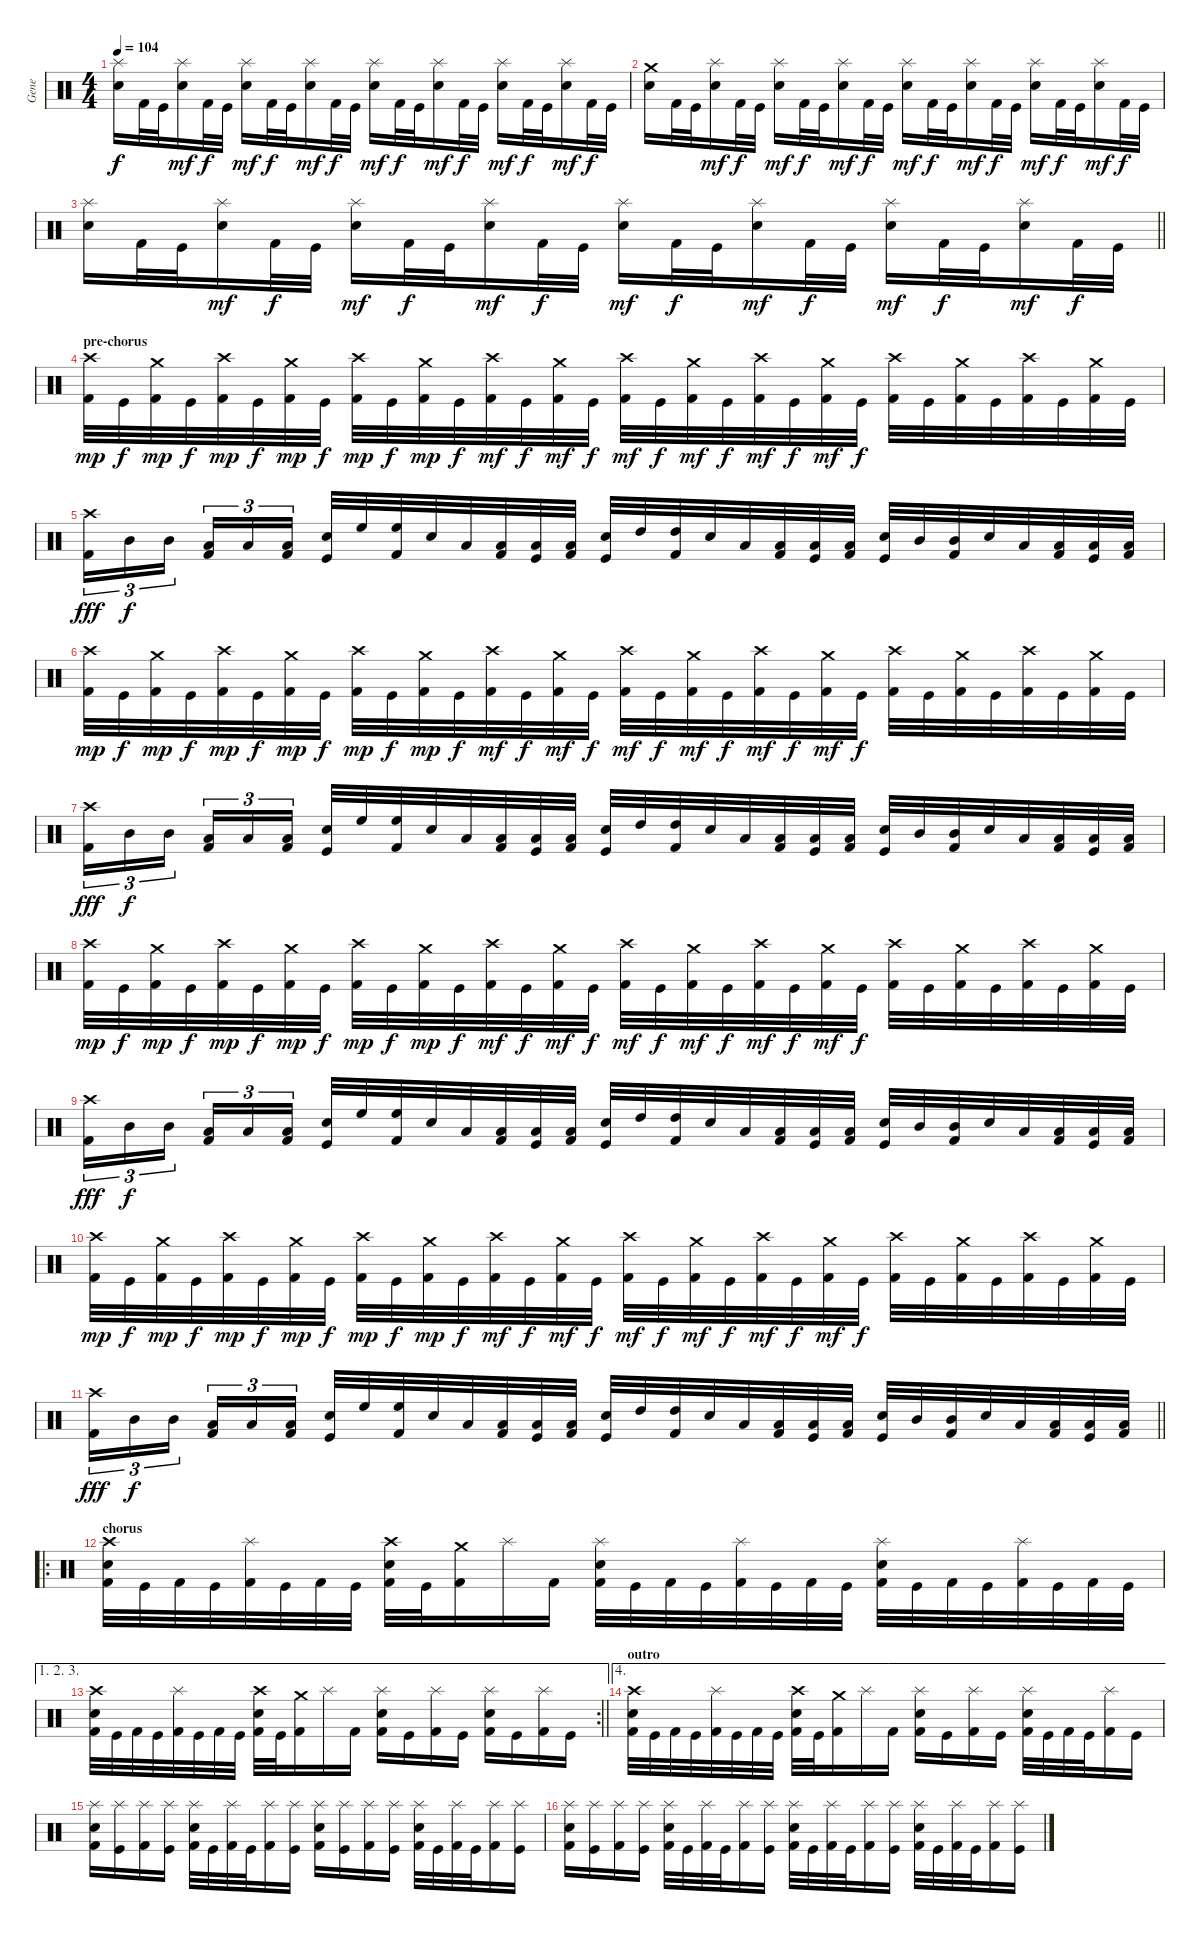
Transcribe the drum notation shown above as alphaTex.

\track ("Gene" "Gene") {instrument percussion}
\staff {score}
\articulation defaults
\ts (4 4)
\tempo 104
\clef neutral
\ks c
("Splash (hit)" "Snare (hit) 2").16{dy f} "Kick (hit) 2".32 "Kick (hit)".32 ("Splash (hit)" "Snare (hit) 2").16{dy mf} "Kick (hit) 2".32{dy f} "Kick (hit)".32 ("Splash (hit)" "Snare (hit) 2").16{dy mf} "Kick (hit) 2".32{dy f} "Kick (hit)".32 ("Splash (hit)" "Snare (hit) 2").16{dy mf} "Kick (hit) 2".32{dy f} "Kick (hit)".32 ("Splash (hit)" "Snare (hit) 2").16{dy mf} "Kick (hit) 2".32{dy f} "Kick (hit)".32 ("Splash (hit)" "Snare (hit) 2").16{dy mf} "Kick (hit) 2".32{dy f} "Kick (hit)".32 ("Splash (hit)" "Snare (hit) 2").16{dy mf} "Kick (hit) 2".32{dy f} "Kick (hit)".32 ("Splash (hit)" "Snare (hit) 2").16{dy mf} "Kick (hit) 2".32{dy f} "Kick (hit)".32 |
("Crash medium (hit)" "Snare (hit) 2").16 "Kick (hit) 2".32 "Kick (hit)".32 ("Splash (hit)" "Snare (hit) 2").16{dy mf} "Kick (hit) 2".32{dy f} "Kick (hit)".32 ("Splash (hit)" "Snare (hit) 2").16{dy mf} "Kick (hit) 2".32{dy f} "Kick (hit)".32 ("Splash (hit)" "Snare (hit) 2").16{dy mf} "Kick (hit) 2".32{dy f} "Kick (hit)".32 ("Splash (hit)" "Snare (hit) 2").16{dy mf} "Kick (hit) 2".32{dy f} "Kick (hit)".32 ("Splash (hit)" "Snare (hit) 2").16{dy mf} "Kick (hit) 2".32{dy f} "Kick (hit)".32 ("Splash (hit)" "Snare (hit) 2").16{dy mf} "Kick (hit) 2".32{dy f} "Kick (hit)".32 ("Splash (hit)" "Snare (hit) 2").16{dy mf} "Kick (hit) 2".32{dy f} "Kick (hit)".32 |
\barLineRight lightlight
("Splash (hit)" "Snare (hit) 2").16 "Kick (hit) 2".32 "Kick (hit)".32 ("Splash (hit)" "Snare (hit) 2").16{dy mf} "Kick (hit) 2".32{dy f} "Kick (hit)".32 ("Splash (hit)" "Snare (hit) 2").16{dy mf} "Kick (hit) 2".32{dy f} "Kick (hit)".32 ("Splash (hit)" "Snare (hit) 2").16{dy mf} "Kick (hit) 2".32{dy f} "Kick (hit)".32 ("Splash (hit)" "Snare (hit) 2").16{dy mf} "Kick (hit) 2".32{dy f} "Kick (hit)".32 ("Splash (hit)" "Snare (hit) 2").16{dy mf} "Kick (hit) 2".32{dy f} "Kick (hit)".32 ("Splash (hit)" "Snare (hit) 2").16{dy mf} "Kick (hit) 2".32{dy f} "Kick (hit)".32 ("Splash (hit)" "Snare (hit) 2").16{dy mf} "Kick (hit) 2".32{dy f} "Kick (hit)".32 |
\section ("" "pre-chorus")
("Crash high (hit)" "Kick (hit) 2").32{dy mp} "Kick (hit)".32{dy f} ("Crash medium (hit)" "Kick (hit) 2").32{dy mp} "Kick (hit)".32{dy f} ("Crash high (hit)" "Kick (hit) 2").32{dy mp} "Kick (hit)".32{dy f} ("Crash medium (hit)" "Kick (hit) 2").32{dy mp} "Kick (hit)".32{dy f} ("Crash high (hit)" "Kick (hit) 2").32{dy mp} "Kick (hit)".32{dy f} ("Crash medium (hit)" "Kick (hit) 2").32{dy mp} "Kick (hit)".32{dy f} ("Crash high (hit)" "Kick (hit) 2").32{dy mf} "Kick (hit)".32{dy f} ("Crash medium (hit)" "Kick (hit) 2").32{dy mf} "Kick (hit)".32{dy f} ("Crash high (hit)" "Kick (hit) 2").32{dy mf} "Kick (hit)".32{dy f} ("Crash medium (hit)" "Kick (hit) 2").32{dy mf} "Kick (hit)".32{dy f} ("Crash high (hit)" "Kick (hit) 2").32{dy mf} "Kick (hit)".32{dy f} ("Crash medium (hit)" "Kick (hit) 2").32{dy mf} "Kick (hit)".32{dy f} ("Crash high (hit)" "Kick (hit) 2").32 "Kick (hit)".32 ("Crash medium (hit)" "Kick (hit) 2").32 "Kick (hit)".32 ("Crash high (hit)" "Kick (hit) 2").32 "Kick (hit)".32 ("Crash medium (hit)" "Kick (hit) 2").32 "Kick (hit)".32 |
("Crash high (hit)" "Kick (hit) 2").16{tu (3 2) dy fff} "Mid Tom (hit)".16{tu (3 2) dy f} "Mid Tom (hit)".16{tu (3 2) beam splitsecondary} ("Low Tom (hit)" "Kick (hit) 2").16{tu (3 2)} "Low Tom (hit)".16{tu (3 2)} ("Low Tom (hit)" "Kick (hit) 2").16{tu (3 2)} ("Electric Snare (hit)" "Kick (hit)").32 "High Floor Tom (hit)".32 ("High Floor Tom (hit)" "Kick (hit) 2").32 "Electric Snare (hit)".32 "Low Tom (hit)".32 ("Low Tom (hit)" "Kick (hit) 2").32 ("Low Tom (hit)" "Kick (hit)").32 ("Low Tom (hit)" "Kick (hit) 2").32 ("Electric Snare (hit)" "Kick (hit)").32 "High Tom (hit)".32 ("High Tom (hit)" "Kick (hit) 2").32 "Electric Snare (hit)".32 "Low Tom (hit)".32 ("Low Tom (hit)" "Kick (hit) 2").32 ("Low Tom (hit)" "Kick (hit)").32 ("Low Tom (hit)" "Kick (hit) 2").32 ("Electric Snare (hit)" "Kick (hit)").32 "Mid Tom (hit)".32 ("Mid Tom (hit)" "Kick (hit) 2").32 "Electric Snare (hit)".32 "Low Tom (hit)".32 ("Low Tom (hit)" "Kick (hit) 2").32 ("Low Tom (hit)" "Kick (hit)").32 ("Low Tom (hit)" "Kick (hit) 2").32 |
("Crash high (hit)" "Kick (hit) 2").32{dy mp} "Kick (hit)".32{dy f} ("Crash medium (hit)" "Kick (hit) 2").32{dy mp} "Kick (hit)".32{dy f} ("Crash high (hit)" "Kick (hit) 2").32{dy mp} "Kick (hit)".32{dy f} ("Crash medium (hit)" "Kick (hit) 2").32{dy mp} "Kick (hit)".32{dy f} ("Crash high (hit)" "Kick (hit) 2").32{dy mp} "Kick (hit)".32{dy f} ("Crash medium (hit)" "Kick (hit) 2").32{dy mp} "Kick (hit)".32{dy f} ("Crash high (hit)" "Kick (hit) 2").32{dy mf} "Kick (hit)".32{dy f} ("Crash medium (hit)" "Kick (hit) 2").32{dy mf} "Kick (hit)".32{dy f} ("Crash high (hit)" "Kick (hit) 2").32{dy mf} "Kick (hit)".32{dy f} ("Crash medium (hit)" "Kick (hit) 2").32{dy mf} "Kick (hit)".32{dy f} ("Crash high (hit)" "Kick (hit) 2").32{dy mf} "Kick (hit)".32{dy f} ("Crash medium (hit)" "Kick (hit) 2").32{dy mf} "Kick (hit)".32{dy f} ("Crash high (hit)" "Kick (hit) 2").32 "Kick (hit)".32 ("Crash medium (hit)" "Kick (hit) 2").32 "Kick (hit)".32 ("Crash high (hit)" "Kick (hit) 2").32 "Kick (hit)".32 ("Crash medium (hit)" "Kick (hit) 2").32 "Kick (hit)".32 |
("Crash high (hit)" "Kick (hit) 2").16{tu (3 2) dy fff} "Mid Tom (hit)".16{tu (3 2) dy f} "Mid Tom (hit)".16{tu (3 2) beam splitsecondary} ("Low Tom (hit)" "Kick (hit) 2").16{tu (3 2)} "Low Tom (hit)".16{tu (3 2)} ("Low Tom (hit)" "Kick (hit) 2").16{tu (3 2)} ("Electric Snare (hit)" "Kick (hit)").32 "High Floor Tom (hit)".32 ("High Floor Tom (hit)" "Kick (hit) 2").32 "Electric Snare (hit)".32 "Low Tom (hit)".32 ("Low Tom (hit)" "Kick (hit) 2").32 ("Low Tom (hit)" "Kick (hit)").32 ("Low Tom (hit)" "Kick (hit) 2").32 ("Electric Snare (hit)" "Kick (hit)").32 "High Tom (hit)".32 ("High Tom (hit)" "Kick (hit) 2").32 "Electric Snare (hit)".32 "Low Tom (hit)".32 ("Low Tom (hit)" "Kick (hit) 2").32 ("Low Tom (hit)" "Kick (hit)").32 ("Low Tom (hit)" "Kick (hit) 2").32 ("Electric Snare (hit)" "Kick (hit)").32 "Mid Tom (hit)".32 ("Mid Tom (hit)" "Kick (hit) 2").32 "Electric Snare (hit)".32 "Low Tom (hit)".32 ("Low Tom (hit)" "Kick (hit) 2").32 ("Low Tom (hit)" "Kick (hit)").32 ("Low Tom (hit)" "Kick (hit) 2").32 |
("Crash high (hit)" "Kick (hit) 2").32{dy mp} "Kick (hit)".32{dy f} ("Crash medium (hit)" "Kick (hit) 2").32{dy mp} "Kick (hit)".32{dy f} ("Crash high (hit)" "Kick (hit) 2").32{dy mp} "Kick (hit)".32{dy f} ("Crash medium (hit)" "Kick (hit) 2").32{dy mp} "Kick (hit)".32{dy f} ("Crash high (hit)" "Kick (hit) 2").32{dy mp} "Kick (hit)".32{dy f} ("Crash medium (hit)" "Kick (hit) 2").32{dy mp} "Kick (hit)".32{dy f} ("Crash high (hit)" "Kick (hit) 2").32{dy mf} "Kick (hit)".32{dy f} ("Crash medium (hit)" "Kick (hit) 2").32{dy mf} "Kick (hit)".32{dy f} ("Crash high (hit)" "Kick (hit) 2").32{dy mf} "Kick (hit)".32{dy f} ("Crash medium (hit)" "Kick (hit) 2").32{dy mf} "Kick (hit)".32{dy f} ("Crash high (hit)" "Kick (hit) 2").32{dy mf} "Kick (hit)".32{dy f} ("Crash medium (hit)" "Kick (hit) 2").32{dy mf} "Kick (hit)".32{dy f} ("Crash high (hit)" "Kick (hit) 2").32 "Kick (hit)".32 ("Crash medium (hit)" "Kick (hit) 2").32 "Kick (hit)".32 ("Crash high (hit)" "Kick (hit) 2").32 "Kick (hit)".32 ("Crash medium (hit)" "Kick (hit) 2").32 "Kick (hit)".32 |
("Crash high (hit)" "Kick (hit) 2").16{tu (3 2) dy fff} "Mid Tom (hit)".16{tu (3 2) dy f} "Mid Tom (hit)".16{tu (3 2) beam splitsecondary} ("Low Tom (hit)" "Kick (hit) 2").16{tu (3 2)} "Low Tom (hit)".16{tu (3 2)} ("Low Tom (hit)" "Kick (hit) 2").16{tu (3 2)} ("Electric Snare (hit)" "Kick (hit)").32 "High Floor Tom (hit)".32 ("High Floor Tom (hit)" "Kick (hit) 2").32 "Electric Snare (hit)".32 "Low Tom (hit)".32 ("Low Tom (hit)" "Kick (hit) 2").32 ("Low Tom (hit)" "Kick (hit)").32 ("Low Tom (hit)" "Kick (hit) 2").32 ("Electric Snare (hit)" "Kick (hit)").32 "High Tom (hit)".32 ("High Tom (hit)" "Kick (hit) 2").32 "Electric Snare (hit)".32 "Low Tom (hit)".32 ("Low Tom (hit)" "Kick (hit) 2").32 ("Low Tom (hit)" "Kick (hit)").32 ("Low Tom (hit)" "Kick (hit) 2").32 ("Electric Snare (hit)" "Kick (hit)").32 "Mid Tom (hit)".32 ("Mid Tom (hit)" "Kick (hit) 2").32 "Electric Snare (hit)".32 "Low Tom (hit)".32 ("Low Tom (hit)" "Kick (hit) 2").32 ("Low Tom (hit)" "Kick (hit)").32 ("Low Tom (hit)" "Kick (hit) 2").32 |
("Crash high (hit)" "Kick (hit) 2").32{dy mp} "Kick (hit)".32{dy f} ("Crash medium (hit)" "Kick (hit) 2").32{dy mp} "Kick (hit)".32{dy f} ("Crash high (hit)" "Kick (hit) 2").32{dy mp} "Kick (hit)".32{dy f} ("Crash medium (hit)" "Kick (hit) 2").32{dy mp} "Kick (hit)".32{dy f} ("Crash high (hit)" "Kick (hit) 2").32{dy mp} "Kick (hit)".32{dy f} ("Crash medium (hit)" "Kick (hit) 2").32{dy mp} "Kick (hit)".32{dy f} ("Crash high (hit)" "Kick (hit) 2").32{dy mf} "Kick (hit)".32{dy f} ("Crash medium (hit)" "Kick (hit) 2").32{dy mf} "Kick (hit)".32{dy f} ("Crash high (hit)" "Kick (hit) 2").32{dy mf} "Kick (hit)".32{dy f} ("Crash medium (hit)" "Kick (hit) 2").32{dy mf} "Kick (hit)".32{dy f} ("Crash high (hit)" "Kick (hit) 2").32{dy mf} "Kick (hit)".32{dy f} ("Crash medium (hit)" "Kick (hit) 2").32{dy mf} "Kick (hit)".32{dy f} ("Crash high (hit)" "Kick (hit) 2").32 "Kick (hit)".32 ("Crash medium (hit)" "Kick (hit) 2").32 "Kick (hit)".32 ("Crash high (hit)" "Kick (hit) 2").32 "Kick (hit)".32 ("Crash medium (hit)" "Kick (hit) 2").32 "Kick (hit)".32 |
\barLineRight lightlight
("Crash high (hit)" "Kick (hit) 2").16{tu (3 2) dy fff} "Mid Tom (hit)".16{tu (3 2) dy f} "Mid Tom (hit)".16{tu (3 2) beam splitsecondary} ("Low Tom (hit)" "Kick (hit) 2").16{tu (3 2)} "Low Tom (hit)".16{tu (3 2)} ("Low Tom (hit)" "Kick (hit) 2").16{tu (3 2)} ("Electric Snare (hit)" "Kick (hit)").32 "High Floor Tom (hit)".32 ("High Floor Tom (hit)" "Kick (hit) 2").32 "Electric Snare (hit)".32 "Low Tom (hit)".32 ("Low Tom (hit)" "Kick (hit) 2").32 ("Low Tom (hit)" "Kick (hit)").32 ("Low Tom (hit)" "Kick (hit) 2").32 ("Electric Snare (hit)" "Kick (hit)").32 "High Tom (hit)".32 ("High Tom (hit)" "Kick (hit) 2").32 "Electric Snare (hit)".32 "Low Tom (hit)".32 ("Low Tom (hit)" "Kick (hit) 2").32 ("Low Tom (hit)" "Kick (hit)").32 ("Low Tom (hit)" "Kick (hit) 2").32 ("Electric Snare (hit)" "Kick (hit)").32 "Mid Tom (hit)".32 ("Mid Tom (hit)" "Kick (hit) 2").32 "Electric Snare (hit)".32 "Low Tom (hit)".32 ("Low Tom (hit)" "Kick (hit) 2").32 ("Low Tom (hit)" "Kick (hit)").32 ("Low Tom (hit)" "Kick (hit) 2").32 |
\ro
\section ("" "chorus")
("Crash high (hit)" "Snare (hit) 2" "Kick (hit) 2").32 "Kick (hit)".32 "Kick (hit) 2".32 "Kick (hit)".32 ("Splash (hit)" "Kick (hit) 2").32 "Kick (hit)".32 "Kick (hit) 2".32 "Kick (hit)".32 ("Crash high (hit)" "Snare (hit) 2" "Kick (hit) 2").32 "Kick (hit)".32 ("Crash medium (hit)" "Kick (hit) 2").16 "Splash (hit)".16 "Kick (hit) 2".16 ("Splash (hit)" "Snare (hit) 2" "Kick (hit) 2").32 "Kick (hit)".32 "Kick (hit) 2".32 "Kick (hit)".32 ("Splash (hit)" "Kick (hit) 2").32 "Kick (hit)".32 "Kick (hit) 2".32 "Kick (hit)".32 ("Splash (hit)" "Snare (hit) 2" "Kick (hit) 2").32 "Kick (hit)".32 "Kick (hit) 2".32 "Kick (hit)".32 ("Splash (hit)" "Kick (hit) 2").32 "Kick (hit)".32 "Kick (hit) 2".32 "Kick (hit)".32 |
\ae (1 2 3)
\rc 2
\barLineRight lightlight
("Crash high (hit)" "Snare (hit) 2" "Kick (hit) 2").32 "Kick (hit)".32 "Kick (hit) 2".32 "Kick (hit)".32 ("Splash (hit)" "Kick (hit) 2").32 "Kick (hit)".32 "Kick (hit) 2".32 "Kick (hit)".32 ("Crash high (hit)" "Snare (hit) 2" "Kick (hit) 2").32 "Kick (hit)".32 ("Crash medium (hit)" "Kick (hit) 2").16 "Splash (hit)".16 "Kick (hit) 2".16 ("Splash (hit)" "Snare (hit) 2" "Kick (hit) 2").16 "Kick (hit)".16 ("Splash (hit)" "Kick (hit) 2").16 "Kick (hit)".16 ("Splash (hit)" "Snare (hit) 2" "Kick (hit) 2").16 "Kick (hit)".16 ("Splash (hit)" "Kick (hit) 2").16 "Kick (hit)".16 |
\ae 4
\section ("" "outro")
("Crash high (hit)" "Snare (hit) 2" "Kick (hit) 2").32 "Kick (hit)".32 "Kick (hit) 2".32 "Kick (hit)".32 ("Splash (hit)" "Kick (hit) 2").32 "Kick (hit)".32 "Kick (hit) 2".32 "Kick (hit)".32 ("Crash high (hit)" "Snare (hit) 2" "Kick (hit) 2").32 "Kick (hit)".32 ("Crash medium (hit)" "Kick (hit) 2").16 "Splash (hit)".16 "Kick (hit) 2".16 ("Splash (hit)" "Snare (hit) 2" "Kick (hit) 2").16 "Kick (hit)".16 ("Splash (hit)" "Kick (hit) 2").16 "Kick (hit)".16 ("Splash (hit)" "Snare (hit) 2" "Kick (hit) 2").32 "Kick (hit)".32 "Kick (hit) 2".32 "Kick (hit)".32 ("Splash (hit)" "Kick (hit) 2").16 "Kick (hit)".16 |
("Splash (hit)" "Snare (hit) 2" "Kick (hit) 2").16 ("Splash (hit)" "Kick (hit)").16 ("Splash (hit)" "Kick (hit) 2").16 ("Splash (hit)" "Kick (hit)").16 ("Splash (hit)" "Snare (hit) 2" "Kick (hit) 2").32 "Kick (hit)".32 ("Splash (hit)" "Kick (hit) 2").32 "Kick (hit)".32 ("Splash (hit)" "Kick (hit) 2").16 ("Splash (hit)" "Kick (hit)").16 ("Splash (hit)" "Snare (hit) 2" "Kick (hit) 2").16 ("Splash (hit)" "Kick (hit)").16 ("Splash (hit)" "Kick (hit) 2").16 ("Splash (hit)" "Kick (hit)").16 ("Splash (hit)" "Snare (hit) 2" "Kick (hit) 2").32 "Kick (hit)".32 ("Splash (hit)" "Kick (hit) 2").32 "Kick (hit)".32 ("Splash (hit)" "Kick (hit) 2").16 ("Splash (hit)" "Kick (hit)").16 |
("Splash (hit)" "Snare (hit) 2" "Kick (hit) 2").16 ("Splash (hit)" "Kick (hit)").16 ("Splash (hit)" "Kick (hit) 2").16 ("Splash (hit)" "Kick (hit)").16 ("Splash (hit)" "Snare (hit) 2" "Kick (hit) 2").32 "Kick (hit)".32 ("Splash (hit)" "Kick (hit) 2").32 "Kick (hit)".32 ("Splash (hit)" "Kick (hit) 2").16 ("Splash (hit)" "Kick (hit)").16 ("Splash (hit)" "Snare (hit) 2" "Kick (hit) 2").32 "Kick (hit)".32 ("Splash (hit)" "Kick (hit) 2").32 "Kick (hit)".32 ("Splash (hit)" "Kick (hit) 2").16 ("Splash (hit)" "Kick (hit)").16 ("Splash (hit)" "Snare (hit) 2" "Kick (hit) 2").32 "Kick (hit)".32 ("Splash (hit)" "Kick (hit) 2").32 "Kick (hit)".32 ("Splash (hit)" "Kick (hit) 2").16 ("Splash (hit)" "Kick (hit)").16
